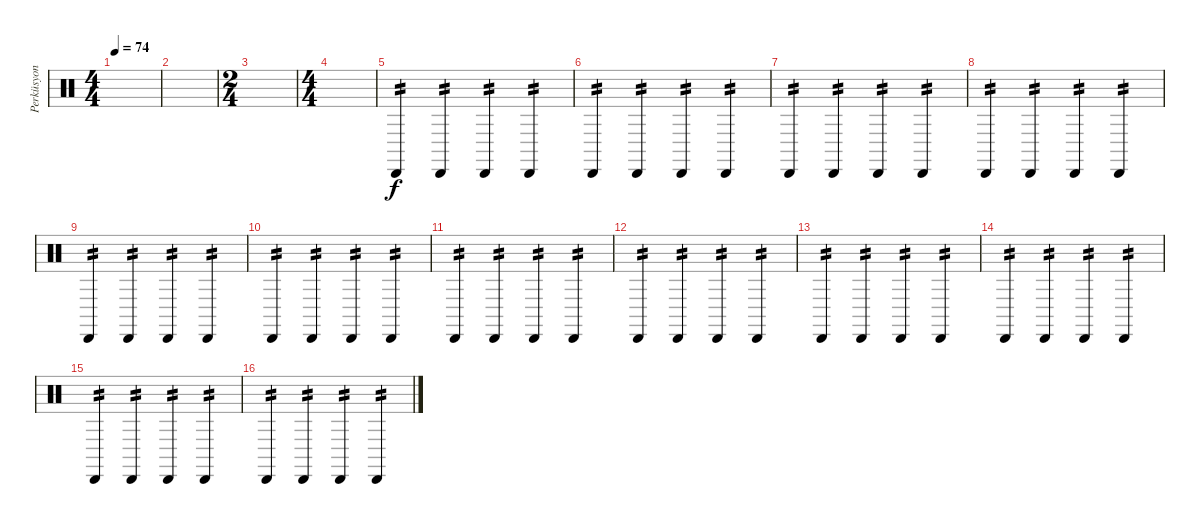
\track ("Perküsyon" "Perküsyon") {instrument percussion}
\staff {score}
\articulation defaults
\ts (4 4)
\tempo 74
\clef neutral
\ks c
|
|
\ts (2 4)
|
\ts (4 4)
|
"Cabasa (hit)".4{tp 2} "Cabasa (hit)".4{tp 2} "Cabasa (hit)".4{tp 2} "Cabasa (hit)".4{tp 2} |
"Cabasa (hit)".4{tp 2} "Cabasa (hit)".4{tp 2} "Cabasa (hit)".4{tp 2} "Cabasa (hit)".4{tp 2} |
"Cabasa (hit)".4{tp 2} "Cabasa (hit)".4{tp 2} "Cabasa (hit)".4{tp 2} "Cabasa (hit)".4{tp 2} |
"Cabasa (hit)".4{tp 2} "Cabasa (hit)".4{tp 2} "Cabasa (hit)".4{tp 2} "Cabasa (hit)".4{tp 2} |
"Cabasa (hit)".4{tp 2} "Cabasa (hit)".4{tp 2} "Cabasa (hit)".4{tp 2} "Cabasa (hit)".4{tp 2} |
"Cabasa (hit)".4{tp 2} "Cabasa (hit)".4{tp 2} "Cabasa (hit)".4{tp 2} "Cabasa (hit)".4{tp 2} |
"Cabasa (hit)".4{tp 2} "Cabasa (hit)".4{tp 2} "Cabasa (hit)".4{tp 2} "Cabasa (hit)".4{tp 2} |
"Cabasa (hit)".4{tp 2} "Cabasa (hit)".4{tp 2} "Cabasa (hit)".4{tp 2} "Cabasa (hit)".4{tp 2} |
"Cabasa (hit)".4{tp 2} "Cabasa (hit)".4{tp 2} "Cabasa (hit)".4{tp 2} "Cabasa (hit)".4{tp 2} |
"Cabasa (hit)".4{tp 2} "Cabasa (hit)".4{tp 2} "Cabasa (hit)".4{tp 2} "Cabasa (hit)".4{tp 2} |
"Cabasa (hit)".4{tp 2} "Cabasa (hit)".4{tp 2} "Cabasa (hit)".4{tp 2} "Cabasa (hit)".4{tp 2} |
"Cabasa (hit)".4{tp 2} "Cabasa (hit)".4{tp 2} "Cabasa (hit)".4{tp 2} "Cabasa (hit)".4{tp 2}
